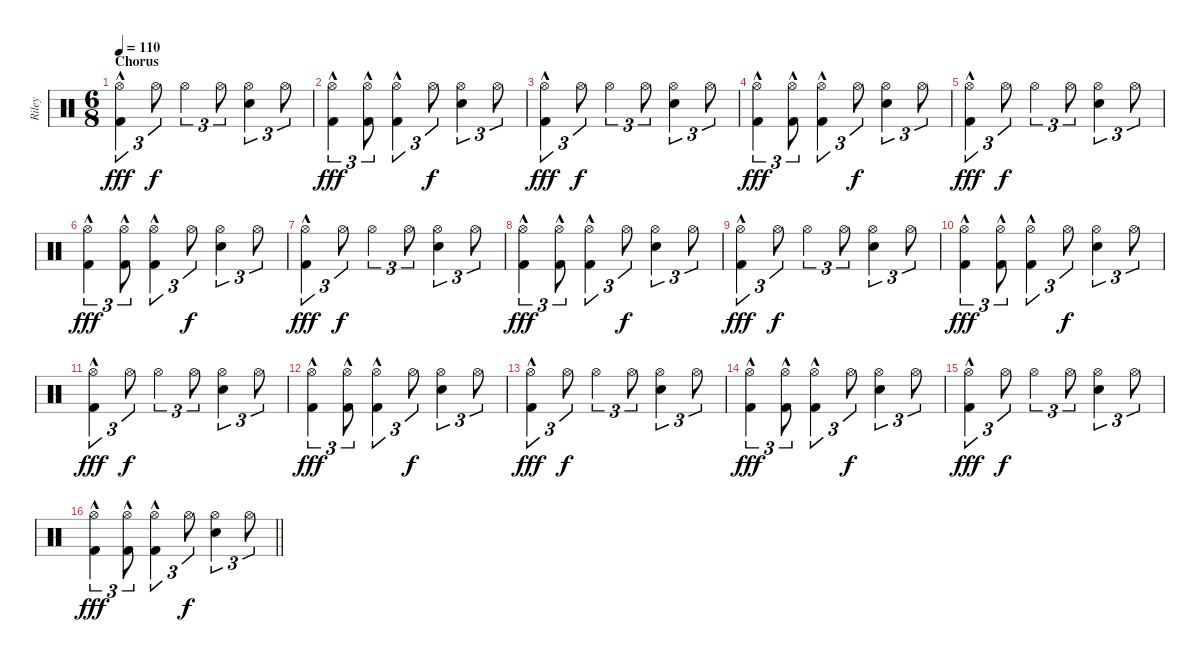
\track ("Riley" "Riley") {instrument percussion}
\staff {score}
\articulation defaults
\ts (6 8)
\section ("" "Chorus")
\tempo 110
\clef neutral
\ks c
("Hi-Hat (open)" "Kick (hit) 2"{hac}).4{tu (3 2) dy fff} "Hi-Hat (open)".8{tu (3 2) dy f} "Hi-Hat (open)".4{tu (3 2)} "Hi-Hat (open)".8{tu (3 2)} ("Hi-Hat (open)" "Electric Snare (hit)").4{tu (3 2)} "Hi-Hat (open)".8{tu (3 2)} |
("Hi-Hat (open)" "Kick (hit) 2"{hac}).4{tu (3 2) dy fff} ("Hi-Hat (open)" "Kick (hit) 2"{hac}).8{tu (3 2)} ("Hi-Hat (open)" "Kick (hit) 2"{hac}).4{tu (3 2)} "Hi-Hat (open)".8{tu (3 2) dy f} ("Hi-Hat (open)" "Electric Snare (hit)").4{tu (3 2)} "Hi-Hat (open)".8{tu (3 2)} |
("Hi-Hat (open)" "Kick (hit) 2"{hac}).4{tu (3 2) dy fff} "Hi-Hat (open)".8{tu (3 2) dy f} "Hi-Hat (open)".4{tu (3 2)} "Hi-Hat (open)".8{tu (3 2)} ("Hi-Hat (open)" "Electric Snare (hit)").4{tu (3 2)} "Hi-Hat (open)".8{tu (3 2)} |
("Hi-Hat (open)" "Kick (hit) 2"{hac}).4{tu (3 2) dy fff} ("Hi-Hat (open)" "Kick (hit) 2"{hac}).8{tu (3 2)} ("Hi-Hat (open)" "Kick (hit) 2"{hac}).4{tu (3 2)} "Hi-Hat (open)".8{tu (3 2) dy f} ("Hi-Hat (open)" "Electric Snare (hit)").4{tu (3 2)} "Hi-Hat (open)".8{tu (3 2)} |
("Hi-Hat (open)" "Kick (hit) 2"{hac}).4{tu (3 2) dy fff} "Hi-Hat (open)".8{tu (3 2) dy f} "Hi-Hat (open)".4{tu (3 2)} "Hi-Hat (open)".8{tu (3 2)} ("Hi-Hat (open)" "Electric Snare (hit)").4{tu (3 2)} "Hi-Hat (open)".8{tu (3 2)} |
("Hi-Hat (open)" "Kick (hit) 2"{hac}).4{tu (3 2) dy fff} ("Hi-Hat (open)" "Kick (hit) 2"{hac}).8{tu (3 2)} ("Hi-Hat (open)" "Kick (hit) 2"{hac}).4{tu (3 2)} "Hi-Hat (open)".8{tu (3 2) dy f} ("Hi-Hat (open)" "Electric Snare (hit)").4{tu (3 2)} "Hi-Hat (open)".8{tu (3 2)} |
("Hi-Hat (open)" "Kick (hit) 2"{hac}).4{tu (3 2) dy fff} "Hi-Hat (open)".8{tu (3 2) dy f} "Hi-Hat (open)".4{tu (3 2)} "Hi-Hat (open)".8{tu (3 2)} ("Hi-Hat (open)" "Electric Snare (hit)").4{tu (3 2)} "Hi-Hat (open)".8{tu (3 2)} |
("Hi-Hat (open)" "Kick (hit) 2"{hac}).4{tu (3 2) dy fff} ("Hi-Hat (open)" "Kick (hit) 2"{hac}).8{tu (3 2)} ("Hi-Hat (open)" "Kick (hit) 2"{hac}).4{tu (3 2)} "Hi-Hat (open)".8{tu (3 2) dy f} ("Hi-Hat (open)" "Electric Snare (hit)").4{tu (3 2)} "Hi-Hat (open)".8{tu (3 2)} |
("Hi-Hat (open)" "Kick (hit) 2"{hac}).4{tu (3 2) dy fff} "Hi-Hat (open)".8{tu (3 2) dy f} "Hi-Hat (open)".4{tu (3 2)} "Hi-Hat (open)".8{tu (3 2)} ("Hi-Hat (open)" "Electric Snare (hit)").4{tu (3 2)} "Hi-Hat (open)".8{tu (3 2)} |
("Hi-Hat (open)" "Kick (hit) 2"{hac}).4{tu (3 2) dy fff} ("Hi-Hat (open)" "Kick (hit) 2"{hac}).8{tu (3 2)} ("Hi-Hat (open)" "Kick (hit) 2"{hac}).4{tu (3 2)} "Hi-Hat (open)".8{tu (3 2) dy f} ("Hi-Hat (open)" "Electric Snare (hit)").4{tu (3 2)} "Hi-Hat (open)".8{tu (3 2)} |
("Hi-Hat (open)" "Kick (hit) 2"{hac}).4{tu (3 2) dy fff} "Hi-Hat (open)".8{tu (3 2) dy f} "Hi-Hat (open)".4{tu (3 2)} "Hi-Hat (open)".8{tu (3 2)} ("Hi-Hat (open)" "Electric Snare (hit)").4{tu (3 2)} "Hi-Hat (open)".8{tu (3 2)} |
("Hi-Hat (open)" "Kick (hit) 2"{hac}).4{tu (3 2) dy fff} ("Hi-Hat (open)" "Kick (hit) 2"{hac}).8{tu (3 2)} ("Hi-Hat (open)" "Kick (hit) 2"{hac}).4{tu (3 2)} "Hi-Hat (open)".8{tu (3 2) dy f} ("Hi-Hat (open)" "Electric Snare (hit)").4{tu (3 2)} "Hi-Hat (open)".8{tu (3 2)} |
("Hi-Hat (open)" "Kick (hit) 2"{hac}).4{tu (3 2) dy fff} "Hi-Hat (open)".8{tu (3 2) dy f} "Hi-Hat (open)".4{tu (3 2)} "Hi-Hat (open)".8{tu (3 2)} ("Hi-Hat (open)" "Electric Snare (hit)").4{tu (3 2)} "Hi-Hat (open)".8{tu (3 2)} |
("Hi-Hat (open)" "Kick (hit) 2"{hac}).4{tu (3 2) dy fff} ("Hi-Hat (open)" "Kick (hit) 2"{hac}).8{tu (3 2)} ("Hi-Hat (open)" "Kick (hit) 2"{hac}).4{tu (3 2)} "Hi-Hat (open)".8{tu (3 2) dy f} ("Hi-Hat (open)" "Electric Snare (hit)").4{tu (3 2)} "Hi-Hat (open)".8{tu (3 2)} |
("Hi-Hat (open)" "Kick (hit) 2"{hac}).4{tu (3 2) dy fff} "Hi-Hat (open)".8{tu (3 2) dy f} "Hi-Hat (open)".4{tu (3 2)} "Hi-Hat (open)".8{tu (3 2)} ("Hi-Hat (open)" "Electric Snare (hit)").4{tu (3 2)} "Hi-Hat (open)".8{tu (3 2)} |
\barLineRight lightlight
("Hi-Hat (open)" "Kick (hit) 2"{hac}).4{tu (3 2) dy fff} ("Hi-Hat (open)" "Kick (hit) 2"{hac}).8{tu (3 2)} ("Hi-Hat (open)" "Kick (hit) 2"{hac}).4{tu (3 2)} "Hi-Hat (open)".8{tu (3 2) dy f} ("Hi-Hat (open)" "Electric Snare (hit)").4{tu (3 2)} "Hi-Hat (open)".8{tu (3 2)}
